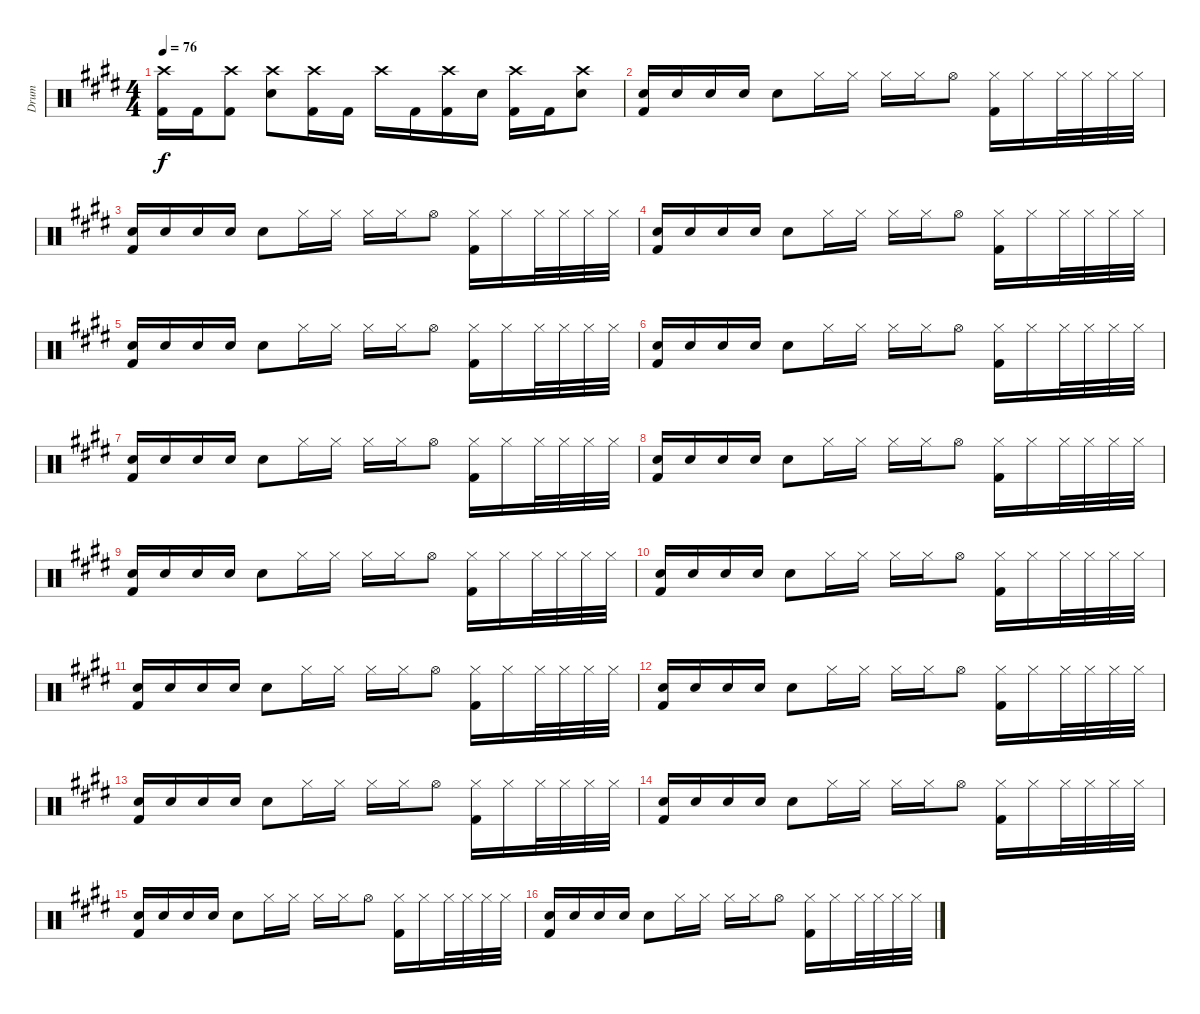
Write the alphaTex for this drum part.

\track ("Drum" "Drum") {instrument percussion}
\staff {score}
\articulation defaults
\ts (4 4)
\tempo 76
\clef neutral
\ks e
("Crash high (hit)" "Kick (hit) 2").16{dy f volume 11} "Kick (hit) 2".16 ("Crash high (hit)" "Kick (hit) 2").8 ("Crash high (hit)" "Electric Snare (hit)").8 ("Crash high (hit)" "Kick (hit) 2").16 "Kick (hit) 2".16 "Crash high (hit)".16 "Kick (hit) 2".16 ("Crash high (hit)" "Kick (hit) 2").16 "Electric Snare (hit)".16 ("Crash high (hit)" "Kick (hit) 2").16 "Kick (hit) 2".16 ("Crash high (hit)" "Electric Snare (hit)").8 |
("Electric Snare (hit)" "Kick (hit) 2").16 "Electric Snare (hit)".16 "Electric Snare (hit)".16 "Electric Snare (hit)".16 "Electric Snare (hit)".8 "Hi-Hat (closed)".16 "Hi-Hat (closed)".16 "Hi-Hat (closed)".16 "Hi-Hat (closed)".16 "Hi-Hat (open)".8 ("Hi-Hat (closed)" "Kick (hit) 2").16 "Hi-Hat (closed)".16 "Hi-Hat (closed)".32 "Hi-Hat (closed)".32 "Hi-Hat (closed)".32 "Hi-Hat (closed)".32 |
("Electric Snare (hit)" "Kick (hit) 2").16 "Electric Snare (hit)".16 "Electric Snare (hit)".16 "Electric Snare (hit)".16 "Electric Snare (hit)".8 "Hi-Hat (closed)".16 "Hi-Hat (closed)".16 "Hi-Hat (closed)".16 "Hi-Hat (closed)".16 "Hi-Hat (open)".8 ("Hi-Hat (closed)" "Kick (hit) 2").16 "Hi-Hat (closed)".16 "Hi-Hat (closed)".32 "Hi-Hat (closed)".32 "Hi-Hat (closed)".32 "Hi-Hat (closed)".32 |
("Electric Snare (hit)" "Kick (hit) 2").16 "Electric Snare (hit)".16 "Electric Snare (hit)".16 "Electric Snare (hit)".16 "Electric Snare (hit)".8 "Hi-Hat (closed)".16 "Hi-Hat (closed)".16 "Hi-Hat (closed)".16 "Hi-Hat (closed)".16 "Hi-Hat (open)".8 ("Hi-Hat (closed)" "Kick (hit) 2").16 "Hi-Hat (closed)".16 "Hi-Hat (closed)".32 "Hi-Hat (closed)".32 "Hi-Hat (closed)".32 "Hi-Hat (closed)".32 |
("Electric Snare (hit)" "Kick (hit) 2").16 "Electric Snare (hit)".16 "Electric Snare (hit)".16 "Electric Snare (hit)".16 "Electric Snare (hit)".8 "Hi-Hat (closed)".16 "Hi-Hat (closed)".16 "Hi-Hat (closed)".16 "Hi-Hat (closed)".16 "Hi-Hat (open)".8 ("Hi-Hat (closed)" "Kick (hit) 2").16 "Hi-Hat (closed)".16 "Hi-Hat (closed)".32 "Hi-Hat (closed)".32 "Hi-Hat (closed)".32 "Hi-Hat (closed)".32 |
("Electric Snare (hit)" "Kick (hit) 2").16 "Electric Snare (hit)".16 "Electric Snare (hit)".16 "Electric Snare (hit)".16 "Electric Snare (hit)".8 "Hi-Hat (closed)".16 "Hi-Hat (closed)".16 "Hi-Hat (closed)".16 "Hi-Hat (closed)".16 "Hi-Hat (open)".8 ("Hi-Hat (closed)" "Kick (hit) 2").16 "Hi-Hat (closed)".16 "Hi-Hat (closed)".32 "Hi-Hat (closed)".32 "Hi-Hat (closed)".32 "Hi-Hat (closed)".32 |
("Electric Snare (hit)" "Kick (hit) 2").16 "Electric Snare (hit)".16 "Electric Snare (hit)".16 "Electric Snare (hit)".16 "Electric Snare (hit)".8 "Hi-Hat (closed)".16 "Hi-Hat (closed)".16 "Hi-Hat (closed)".16 "Hi-Hat (closed)".16 "Hi-Hat (open)".8 ("Hi-Hat (closed)" "Kick (hit) 2").16 "Hi-Hat (closed)".16 "Hi-Hat (closed)".32 "Hi-Hat (closed)".32 "Hi-Hat (closed)".32 "Hi-Hat (closed)".32 |
("Electric Snare (hit)" "Kick (hit) 2").16 "Electric Snare (hit)".16 "Electric Snare (hit)".16 "Electric Snare (hit)".16 "Electric Snare (hit)".8 "Hi-Hat (closed)".16 "Hi-Hat (closed)".16 "Hi-Hat (closed)".16 "Hi-Hat (closed)".16 "Hi-Hat (open)".8 ("Hi-Hat (closed)" "Kick (hit) 2").16 "Hi-Hat (closed)".16 "Hi-Hat (closed)".32 "Hi-Hat (closed)".32 "Hi-Hat (closed)".32 "Hi-Hat (closed)".32 |
("Electric Snare (hit)" "Kick (hit) 2").16 "Electric Snare (hit)".16 "Electric Snare (hit)".16 "Electric Snare (hit)".16 "Electric Snare (hit)".8 "Hi-Hat (closed)".16 "Hi-Hat (closed)".16 "Hi-Hat (closed)".16 "Hi-Hat (closed)".16 "Hi-Hat (open)".8 ("Hi-Hat (closed)" "Kick (hit) 2").16 "Hi-Hat (closed)".16 "Hi-Hat (closed)".32 "Hi-Hat (closed)".32 "Hi-Hat (closed)".32 "Hi-Hat (closed)".32 |
("Electric Snare (hit)" "Kick (hit) 2").16 "Electric Snare (hit)".16 "Electric Snare (hit)".16 "Electric Snare (hit)".16 "Electric Snare (hit)".8 "Hi-Hat (closed)".16 "Hi-Hat (closed)".16 "Hi-Hat (closed)".16 "Hi-Hat (closed)".16 "Hi-Hat (open)".8 ("Hi-Hat (closed)" "Kick (hit) 2").16 "Hi-Hat (closed)".16 "Hi-Hat (closed)".32 "Hi-Hat (closed)".32 "Hi-Hat (closed)".32 "Hi-Hat (closed)".32 |
("Electric Snare (hit)" "Kick (hit) 2").16 "Electric Snare (hit)".16 "Electric Snare (hit)".16 "Electric Snare (hit)".16 "Electric Snare (hit)".8 "Hi-Hat (closed)".16 "Hi-Hat (closed)".16 "Hi-Hat (closed)".16 "Hi-Hat (closed)".16 "Hi-Hat (open)".8 ("Hi-Hat (closed)" "Kick (hit) 2").16 "Hi-Hat (closed)".16 "Hi-Hat (closed)".32 "Hi-Hat (closed)".32 "Hi-Hat (closed)".32 "Hi-Hat (closed)".32 |
("Electric Snare (hit)" "Kick (hit) 2").16 "Electric Snare (hit)".16 "Electric Snare (hit)".16 "Electric Snare (hit)".16 "Electric Snare (hit)".8 "Hi-Hat (closed)".16 "Hi-Hat (closed)".16 "Hi-Hat (closed)".16 "Hi-Hat (closed)".16 "Hi-Hat (open)".8 ("Hi-Hat (closed)" "Kick (hit) 2").16 "Hi-Hat (closed)".16 "Hi-Hat (closed)".32 "Hi-Hat (closed)".32 "Hi-Hat (closed)".32 "Hi-Hat (closed)".32 |
("Electric Snare (hit)" "Kick (hit) 2").16 "Electric Snare (hit)".16 "Electric Snare (hit)".16 "Electric Snare (hit)".16 "Electric Snare (hit)".8 "Hi-Hat (closed)".16 "Hi-Hat (closed)".16 "Hi-Hat (closed)".16 "Hi-Hat (closed)".16 "Hi-Hat (open)".8 ("Hi-Hat (closed)" "Kick (hit) 2").16 "Hi-Hat (closed)".16 "Hi-Hat (closed)".32 "Hi-Hat (closed)".32 "Hi-Hat (closed)".32 "Hi-Hat (closed)".32 |
("Electric Snare (hit)" "Kick (hit) 2").16 "Electric Snare (hit)".16 "Electric Snare (hit)".16 "Electric Snare (hit)".16 "Electric Snare (hit)".8 "Hi-Hat (closed)".16 "Hi-Hat (closed)".16 "Hi-Hat (closed)".16 "Hi-Hat (closed)".16 "Hi-Hat (open)".8 ("Hi-Hat (closed)" "Kick (hit) 2").16 "Hi-Hat (closed)".16 "Hi-Hat (closed)".32 "Hi-Hat (closed)".32 "Hi-Hat (closed)".32 "Hi-Hat (closed)".32 |
("Electric Snare (hit)" "Kick (hit) 2").16 "Electric Snare (hit)".16 "Electric Snare (hit)".16 "Electric Snare (hit)".16 "Electric Snare (hit)".8 "Hi-Hat (closed)".16 "Hi-Hat (closed)".16 "Hi-Hat (closed)".16 "Hi-Hat (closed)".16 "Hi-Hat (open)".8 ("Hi-Hat (closed)" "Kick (hit) 2").16 "Hi-Hat (closed)".16 "Hi-Hat (closed)".32 "Hi-Hat (closed)".32 "Hi-Hat (closed)".32 "Hi-Hat (closed)".32 |
("Electric Snare (hit)" "Kick (hit) 2").16 "Electric Snare (hit)".16 "Electric Snare (hit)".16 "Electric Snare (hit)".16 "Electric Snare (hit)".8 "Hi-Hat (closed)".16 "Hi-Hat (closed)".16 "Hi-Hat (closed)".16 "Hi-Hat (closed)".16 "Hi-Hat (open)".8 ("Hi-Hat (closed)" "Kick (hit) 2").16 "Hi-Hat (closed)".16 "Hi-Hat (closed)".32 "Hi-Hat (closed)".32 "Hi-Hat (closed)".32 "Hi-Hat (closed)".32
